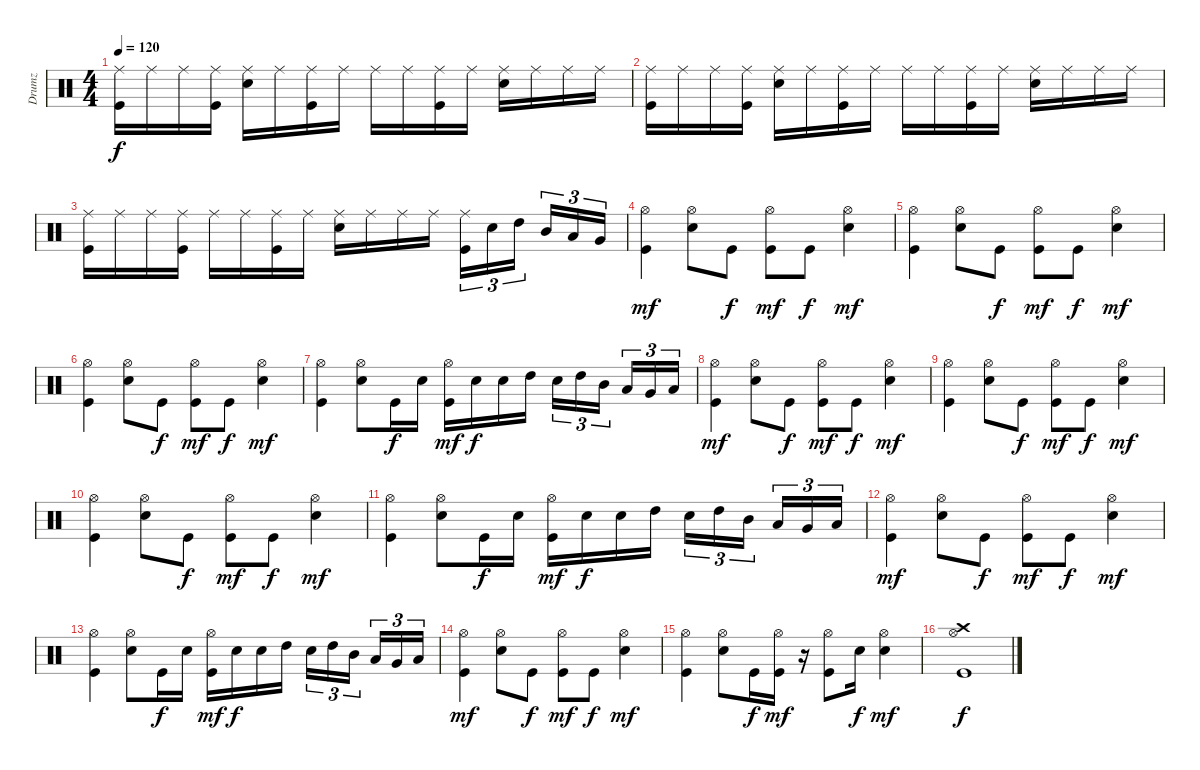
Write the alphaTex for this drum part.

\track ("Drumz" "Drumz") {instrument percussion}
\staff {score}
\articulation defaults
\ts (4 4)
\tempo 120
\clef neutral
\ks c
("Ride (middle)" "Kick (hit)").16{dy f} "Ride (middle)".16 "Ride (middle)".16 ("Ride (middle)" "Kick (hit)").16 ("Ride (middle)" "Electric Snare (hit)").16 "Ride (middle)".16 ("Ride (middle)" "Kick (hit)").16 "Ride (middle)".16 "Ride (middle)".16 "Ride (middle)".16 ("Ride (middle)" "Kick (hit)").16 "Ride (middle)".16 ("Ride (middle)" "Electric Snare (hit)").16 "Ride (middle)".16 "Ride (middle)".16 "Ride (middle)".16 |
("Ride (middle)" "Kick (hit)").16 "Ride (middle)".16 "Ride (middle)".16 ("Ride (middle)" "Kick (hit)").16 ("Ride (middle)" "Electric Snare (hit)").16 "Ride (middle)".16 ("Ride (middle)" "Kick (hit)").16 "Ride (middle)".16 "Ride (middle)".16 "Ride (middle)".16 ("Ride (middle)" "Kick (hit)").16 "Ride (middle)".16 ("Ride (middle)" "Electric Snare (hit)").16 "Ride (middle)".16 "Ride (middle)".16 "Ride (middle)".16 |
("Ride (middle)" "Kick (hit)").16 "Ride (middle)".16 "Ride (middle)".16 ("Ride (middle)" "Kick (hit)").16 "Ride (middle)".16 "Ride (middle)".16 ("Ride (middle)" "Kick (hit)").16 "Ride (middle)".16 ("Ride (middle)" "Electric Snare (hit)").16 "Ride (middle)".16 "Ride (middle)".16 "Ride (middle)".16 ("Ride (middle)" "Kick (hit)").16{tu (3 2)} "Electric Snare (hit)".16{tu (3 2)} "High Tom (hit)".16{tu (3 2)} "Mid Tom (hit)".16{tu (3 2)} "Low Tom (hit)".16{tu (3 2)} "Very Low Tom (hit)".16{tu (3 2)} |
("Hi-Hat (open)" "Kick (hit)").4{dy mf} ("Hi-Hat (open)" "Electric Snare (hit)").8 "Kick (hit)".8{dy f} ("Hi-Hat (open)" "Kick (hit)").8{dy mf} "Kick (hit)".8{dy f} ("Hi-Hat (open)" "Electric Snare (hit)").4{dy mf} |
("Hi-Hat (open)" "Kick (hit)").4 ("Hi-Hat (open)" "Electric Snare (hit)").8 "Kick (hit)".8{dy f} ("Hi-Hat (open)" "Kick (hit)").8{dy mf} "Kick (hit)".8{dy f} ("Hi-Hat (open)" "Electric Snare (hit)").4{dy mf} |
("Hi-Hat (open)" "Kick (hit)").4 ("Hi-Hat (open)" "Electric Snare (hit)").8 "Kick (hit)".8{dy f} ("Hi-Hat (open)" "Kick (hit)").8{dy mf} "Kick (hit)".8{dy f} ("Hi-Hat (open)" "Electric Snare (hit)").4{dy mf} |
("Hi-Hat (open)" "Kick (hit)").4 ("Hi-Hat (open)" "Electric Snare (hit)").8 "Kick (hit)".16{dy f} "Electric Snare (hit)".16 ("Hi-Hat (open)" "Kick (hit)").16{dy mf} "Electric Snare (hit)".16{dy f} "Electric Snare (hit)".16 "High Tom (hit)".16 "Electric Snare (hit)".16{tu (3 2)} "High Tom (hit)".16{tu (3 2)} "Mid Tom (hit)".16{tu (3 2)} "Low Tom (hit)".16{tu (3 2)} "Very Low Tom (hit)".16{tu (3 2)} "Low Floor Tom (hit)".16{tu (3 2)} |
("Hi-Hat (open)" "Kick (hit)").4{dy mf} ("Hi-Hat (open)" "Electric Snare (hit)").8 "Kick (hit)".8{dy f} ("Hi-Hat (open)" "Kick (hit)").8{dy mf} "Kick (hit)".8{dy f} ("Hi-Hat (open)" "Electric Snare (hit)").4{dy mf} |
("Hi-Hat (open)" "Kick (hit)").4 ("Hi-Hat (open)" "Electric Snare (hit)").8 "Kick (hit)".8{dy f} ("Hi-Hat (open)" "Kick (hit)").8{dy mf} "Kick (hit)".8{dy f} ("Hi-Hat (open)" "Electric Snare (hit)").4{dy mf} |
("Hi-Hat (open)" "Kick (hit)").4 ("Hi-Hat (open)" "Electric Snare (hit)").8 "Kick (hit)".8{dy f} ("Hi-Hat (open)" "Kick (hit)").8{dy mf} "Kick (hit)".8{dy f} ("Hi-Hat (open)" "Electric Snare (hit)").4{dy mf} |
("Hi-Hat (open)" "Kick (hit)").4 ("Hi-Hat (open)" "Electric Snare (hit)").8 "Kick (hit)".16{dy f} "Electric Snare (hit)".16 ("Hi-Hat (open)" "Kick (hit)").16{dy mf} "Electric Snare (hit)".16{dy f} "Electric Snare (hit)".16 "High Tom (hit)".16 "Electric Snare (hit)".16{tu (3 2)} "High Tom (hit)".16{tu (3 2)} "Mid Tom (hit)".16{tu (3 2)} "Low Tom (hit)".16{tu (3 2)} "Very Low Tom (hit)".16{tu (3 2)} "Low Floor Tom (hit)".16{tu (3 2)} |
("Hi-Hat (open)" "Kick (hit)").4{dy mf} ("Hi-Hat (open)" "Electric Snare (hit)").8 "Kick (hit)".8{dy f} ("Hi-Hat (open)" "Kick (hit)").8{dy mf} "Kick (hit)".8{dy f} ("Hi-Hat (open)" "Electric Snare (hit)").4{dy mf} |
("Hi-Hat (open)" "Kick (hit)").4 ("Hi-Hat (open)" "Electric Snare (hit)").8 "Kick (hit)".16{dy f} "Electric Snare (hit)".16 ("Hi-Hat (open)" "Kick (hit)").16{dy mf} "Electric Snare (hit)".16{dy f} "Electric Snare (hit)".16 "High Tom (hit)".16 "Electric Snare (hit)".16{tu (3 2)} "High Tom (hit)".16{tu (3 2)} "Mid Tom (hit)".16{tu (3 2)} "Low Tom (hit)".16{tu (3 2)} "Very Low Tom (hit)".16{tu (3 2)} "Low Floor Tom (hit)".16{tu (3 2)} |
("Hi-Hat (open)" "Kick (hit)").4{dy mf} ("Hi-Hat (open)" "Electric Snare (hit)").8 "Kick (hit)".8{dy f} ("Hi-Hat (open)" "Kick (hit)").8{dy mf} "Kick (hit)".8{dy f} ("Hi-Hat (open)" "Electric Snare (hit)").4{dy mf} |
("Hi-Hat (open)" "Kick (hit)").4 ("Hi-Hat (open)" "Electric Snare (hit)").8 "Kick (hit)".16{dy f} ("Hi-Hat (open)" "Kick (hit)").16{dy mf} r.16 ("Hi-Hat (open)" "Kick (hit)").8 "Electric Snare (hit)".16{dy f} ("Hi-Hat (open)" "Electric Snare (hit)").4{dy mf} |
("Crash high (hit)" "Hi-Hat (open)" "Kick (hit)").1{dy f}
